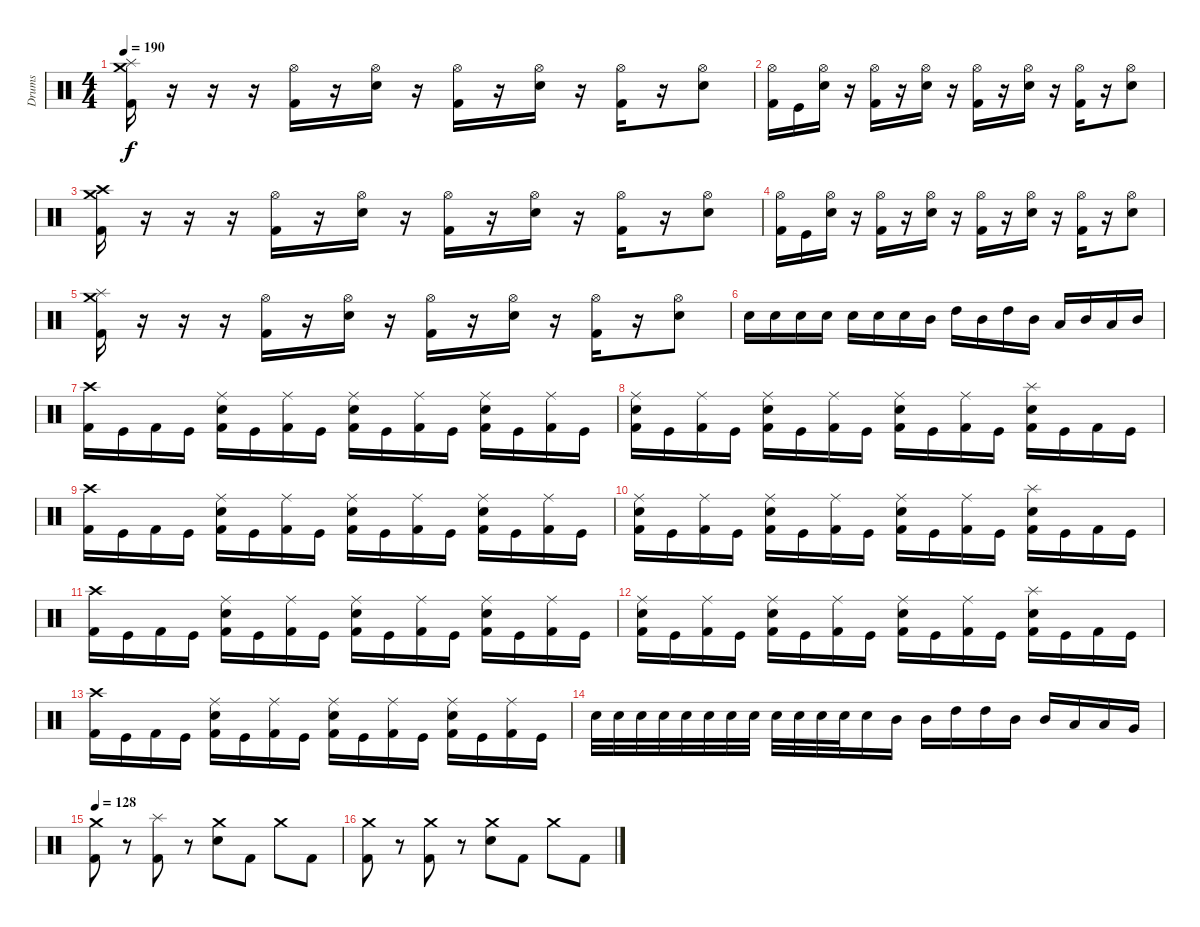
\track ("Drums" "Drums") {instrument percussion}
\staff {score}
\articulation defaults
\ts (4 4)
\tempo 190
\clef neutral
\ks c
("Splash (hit)" "Crash medium (hit)" "Kick (hit) 2").16{dy f} r.16 r.16 r.16 ("Hi-Hat (open)" "Kick (hit) 2").16 r.16 ("Hi-Hat (open)" "Electric Snare (hit)").16 r.16 ("Hi-Hat (open)" "Kick (hit) 2").16 r.16 ("Hi-Hat (open)" "Electric Snare (hit)").16 r.16 ("Hi-Hat (open)" "Kick (hit) 2").16 r.16 ("Hi-Hat (open)" "Electric Snare (hit)").8 |
("Hi-Hat (open)" "Kick (hit) 2").16 "Kick (hit)".16 ("Hi-Hat (open)" "Electric Snare (hit)").16 r.16 ("Hi-Hat (open)" "Kick (hit) 2").16 r.16 ("Hi-Hat (open)" "Electric Snare (hit)").16 r.16 ("Hi-Hat (open)" "Kick (hit) 2").16 r.16 ("Hi-Hat (open)" "Electric Snare (hit)").16 r.16 ("Hi-Hat (open)" "Kick (hit) 2").16 r.16 ("Hi-Hat (open)" "Electric Snare (hit)").8 |
("Crash high (hit)" "Crash medium (hit)" "Kick (hit) 2").16 r.16 r.16 r.16 ("Hi-Hat (open)" "Kick (hit) 2").16 r.16 ("Hi-Hat (open)" "Electric Snare (hit)").16 r.16 ("Hi-Hat (open)" "Kick (hit) 2").16 r.16 ("Hi-Hat (open)" "Electric Snare (hit)").16 r.16 ("Hi-Hat (open)" "Kick (hit) 2").16 r.16 ("Hi-Hat (open)" "Electric Snare (hit)").8 |
("Hi-Hat (open)" "Kick (hit) 2").16 "Kick (hit)".16 ("Hi-Hat (open)" "Electric Snare (hit)").16 r.16 ("Hi-Hat (open)" "Kick (hit) 2").16 r.16 ("Hi-Hat (open)" "Electric Snare (hit)").16 r.16 ("Hi-Hat (open)" "Kick (hit) 2").16 r.16 ("Hi-Hat (open)" "Electric Snare (hit)").16 r.16 ("Hi-Hat (open)" "Kick (hit) 2").16 r.16 ("Hi-Hat (open)" "Electric Snare (hit)").8 |
("Splash (hit)" "Crash medium (hit)" "Kick (hit) 2").16 r.16 r.16 r.16 ("Hi-Hat (open)" "Kick (hit) 2").16 r.16 ("Hi-Hat (open)" "Electric Snare (hit)").16 r.16 ("Hi-Hat (open)" "Kick (hit) 2").16 r.16 ("Hi-Hat (open)" "Electric Snare (hit)").16 r.16 ("Hi-Hat (open)" "Kick (hit) 2").16 r.16 ("Hi-Hat (open)" "Electric Snare (hit)").8 |
"Electric Snare (hit)".16 "Electric Snare (hit)".16 "Electric Snare (hit)".16 "Electric Snare (hit)".16 "Electric Snare (hit)".16 "Electric Snare (hit)".16 "Electric Snare (hit)".16 "Mid Tom (hit)".16 "High Tom (hit)".16 "Mid Tom (hit)".16 "High Tom (hit)".16 "Mid Tom (hit)".16 "Low Tom (hit)".16 "Mid Tom (hit)".16 "Low Tom (hit)".16 "Mid Tom (hit)".16 |
("Crash high (hit)" "Kick (hit) 2").16 "Kick (hit)".16 "Kick (hit) 2".16 "Kick (hit)".16 ("Ride (middle)" "Electric Snare (hit)" "Kick (hit) 2").16 "Kick (hit)".16 ("Ride (middle)" "Kick (hit) 2").16 "Kick (hit)".16 ("Ride (middle)" "Electric Snare (hit)" "Kick (hit) 2").16 "Kick (hit)".16 ("Ride (middle)" "Kick (hit) 2").16 "Kick (hit)".16 ("Ride (middle)" "Electric Snare (hit)" "Kick (hit) 2").16 "Kick (hit)".16 ("Ride (middle)" "Kick (hit) 2").16 "Kick (hit)".16 |
("Ride (middle)" "Electric Snare (hit)" "Kick (hit) 2").16 "Kick (hit)".16 ("Ride (middle)" "Kick (hit) 2").16 "Kick (hit)".16 ("Ride (middle)" "Electric Snare (hit)" "Kick (hit) 2").16 "Kick (hit)".16 ("Ride (middle)" "Kick (hit) 2").16 "Kick (hit)".16 ("Ride (middle)" "Electric Snare (hit)" "Kick (hit) 2").16 "Kick (hit)".16 ("Ride (middle)" "Kick (hit) 2").16 "Kick (hit)".16 ("Splash (hit)" "Electric Snare (hit)" "Kick (hit) 2").16 "Kick (hit)".16 "Kick (hit) 2".16 "Kick (hit)".16 |
("Crash high (hit)" "Kick (hit) 2").16 "Kick (hit)".16 "Kick (hit) 2".16 "Kick (hit)".16 ("Ride (middle)" "Electric Snare (hit)" "Kick (hit) 2").16 "Kick (hit)".16 ("Ride (middle)" "Kick (hit) 2").16 "Kick (hit)".16 ("Ride (middle)" "Electric Snare (hit)" "Kick (hit) 2").16 "Kick (hit)".16 ("Ride (middle)" "Kick (hit) 2").16 "Kick (hit)".16 ("Ride (middle)" "Electric Snare (hit)" "Kick (hit) 2").16 "Kick (hit)".16 ("Ride (middle)" "Kick (hit) 2").16 "Kick (hit)".16 |
("Ride (middle)" "Electric Snare (hit)" "Kick (hit) 2").16 "Kick (hit)".16 ("Ride (middle)" "Kick (hit) 2").16 "Kick (hit)".16 ("Ride (middle)" "Electric Snare (hit)" "Kick (hit) 2").16 "Kick (hit)".16 ("Ride (middle)" "Kick (hit) 2").16 "Kick (hit)".16 ("Ride (middle)" "Electric Snare (hit)" "Kick (hit) 2").16 "Kick (hit)".16 ("Ride (middle)" "Kick (hit) 2").16 "Kick (hit)".16 ("Splash (hit)" "Electric Snare (hit)" "Kick (hit) 2").16 "Kick (hit)".16 "Kick (hit) 2".16 "Kick (hit)".16 |
("Crash high (hit)" "Kick (hit) 2").16 "Kick (hit)".16 "Kick (hit) 2".16 "Kick (hit)".16 ("Ride (middle)" "Electric Snare (hit)" "Kick (hit) 2").16 "Kick (hit)".16 ("Ride (middle)" "Kick (hit) 2").16 "Kick (hit)".16 ("Ride (middle)" "Electric Snare (hit)" "Kick (hit) 2").16 "Kick (hit)".16 ("Ride (middle)" "Kick (hit) 2").16 "Kick (hit)".16 ("Ride (middle)" "Electric Snare (hit)" "Kick (hit) 2").16 "Kick (hit)".16 ("Ride (middle)" "Kick (hit) 2").16 "Kick (hit)".16 |
("Ride (middle)" "Electric Snare (hit)" "Kick (hit) 2").16 "Kick (hit)".16 ("Ride (middle)" "Kick (hit) 2").16 "Kick (hit)".16 ("Ride (middle)" "Electric Snare (hit)" "Kick (hit) 2").16 "Kick (hit)".16 ("Ride (middle)" "Kick (hit) 2").16 "Kick (hit)".16 ("Ride (middle)" "Electric Snare (hit)" "Kick (hit) 2").16 "Kick (hit)".16 ("Ride (middle)" "Kick (hit) 2").16 "Kick (hit)".16 ("Splash (hit)" "Electric Snare (hit)" "Kick (hit) 2").16 "Kick (hit)".16 "Kick (hit) 2".16 "Kick (hit)".16 |
("Crash high (hit)" "Kick (hit) 2").16 "Kick (hit)".16 "Kick (hit) 2".16 "Kick (hit)".16 ("Ride (middle)" "Electric Snare (hit)" "Kick (hit) 2").16 "Kick (hit)".16 ("Ride (middle)" "Kick (hit) 2").16 "Kick (hit)".16 ("Ride (middle)" "Electric Snare (hit)" "Kick (hit) 2").16 "Kick (hit)".16 ("Ride (middle)" "Kick (hit) 2").16 "Kick (hit)".16 ("Ride (middle)" "Electric Snare (hit)" "Kick (hit) 2").16 "Kick (hit)".16 ("Ride (middle)" "Kick (hit) 2").16 "Kick (hit)".16 |
"Electric Snare (hit)".32 "Electric Snare (hit)".32 "Electric Snare (hit)".32 "Electric Snare (hit)".32 "Electric Snare (hit)".32 "Electric Snare (hit)".32 "Electric Snare (hit)".32 "Electric Snare (hit)".32 "Electric Snare (hit)".32 "Electric Snare (hit)".32 "Electric Snare (hit)".32 "Electric Snare (hit)".32 "Electric Snare (hit)".16 "Mid Tom (hit)".16 "Mid Tom (hit)".16 "High Tom (hit)".16 "High Tom (hit)".16 "Mid Tom (hit)".16 "Mid Tom (hit)".16 "Low Tom (hit)".16 "Low Tom (hit)".16 "Very Low Tom (hit)".16 |
\tempo 128
("Crash medium (hit)" "Kick (hit) 2").8 r.8 ("Splash (hit)" "Kick (hit) 2").8 r.8 ("Crash medium (hit)" "Electric Snare (hit)").8 "Kick (hit) 2".8 "Crash medium (hit)".8 "Kick (hit) 2".8 |
("Crash medium (hit)" "Kick (hit) 2").8 r.8 ("Crash medium (hit)" "Kick (hit) 2").8 r.8 ("Crash medium (hit)" "Electric Snare (hit)").8 "Kick (hit) 2".8 "Crash medium (hit)".8 "Kick (hit) 2".8
